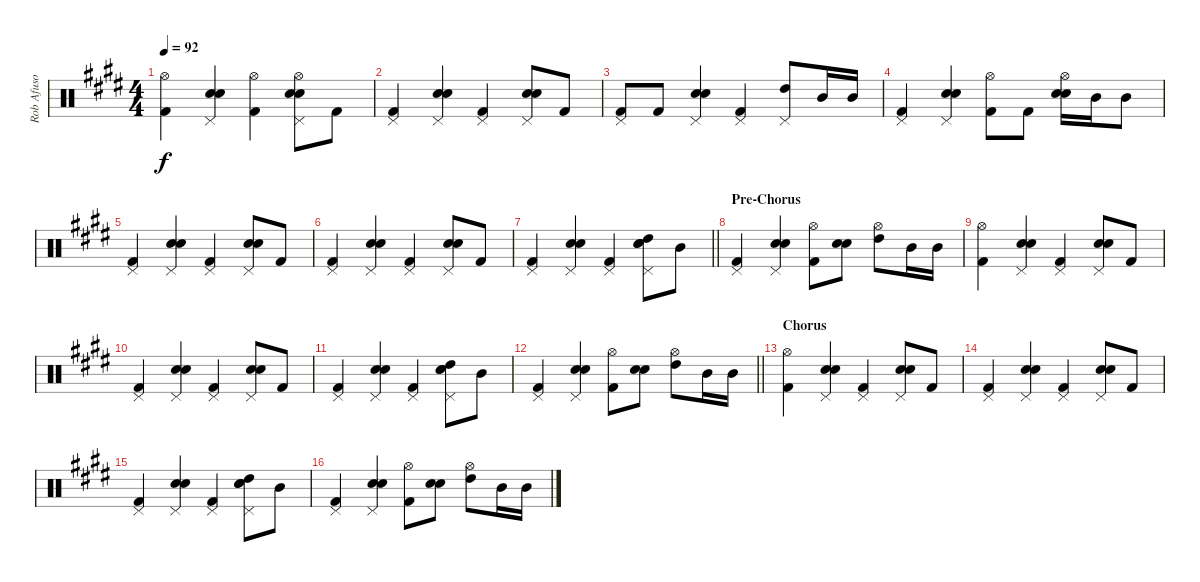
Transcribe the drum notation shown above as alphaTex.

\track ("Rob Afuso" "Rob Afuso") {instrument percussion}
\staff {score}
\articulation defaults
\ts (4 4)
\tempo 92
\clef neutral
\ks e
("Hi-Hat (open)" "Kick (hit) 2").4{dy f} ("Snare (hit) 2" "Electric Snare (hit)" "Pedal Hi-Hat (hit)").4 ("Hi-Hat (open)" "Kick (hit) 2").4 ("Hi-Hat (open)" "Snare (hit) 2" "Electric Snare (hit)" "Pedal Hi-Hat (hit)").8 "Kick (hit) 2".8 |
("Kick (hit) 2" "Pedal Hi-Hat (hit)").4 ("Snare (hit) 2" "Electric Snare (hit)" "Pedal Hi-Hat (hit)").4 ("Kick (hit) 2" "Pedal Hi-Hat (hit)").4 ("Snare (hit) 2" "Electric Snare (hit)" "Pedal Hi-Hat (hit)").8 "Kick (hit) 2".8 |
("Kick (hit) 2" "Pedal Hi-Hat (hit)").8 "Kick (hit) 2".8 ("Snare (hit) 2" "Electric Snare (hit)" "Pedal Hi-Hat (hit)").4 ("Kick (hit) 2" "Pedal Hi-Hat (hit)").4 ("High Tom (hit)" "Pedal Hi-Hat (hit)").8 "Mid Tom (hit)".16 "Mid Tom (hit)".16 |
("Kick (hit) 2" "Pedal Hi-Hat (hit)").4 ("Snare (hit) 2" "Electric Snare (hit)" "Pedal Hi-Hat (hit)").4 ("Hi-Hat (open)" "Kick (hit) 2").8 "Kick (hit) 2".8 ("Hi-Hat (open)" "Snare (hit) 2" "Electric Snare (hit)").16 "Mid Tom (hit)".16 "Mid Tom (hit)".8 |
("Kick (hit) 2" "Pedal Hi-Hat (hit)").4 ("Snare (hit) 2" "Electric Snare (hit)" "Pedal Hi-Hat (hit)").4 ("Kick (hit) 2" "Pedal Hi-Hat (hit)").4 ("Snare (hit) 2" "Electric Snare (hit)" "Pedal Hi-Hat (hit)").8 "Kick (hit) 2".8 |
("Kick (hit) 2" "Pedal Hi-Hat (hit)").4 ("Snare (hit) 2" "Electric Snare (hit)" "Pedal Hi-Hat (hit)").4 ("Kick (hit) 2" "Pedal Hi-Hat (hit)").4 ("Snare (hit) 2" "Electric Snare (hit)" "Pedal Hi-Hat (hit)").8 "Kick (hit) 2".8 |
\barLineRight lightlight
("Kick (hit) 2" "Pedal Hi-Hat (hit)").4 ("Snare (hit) 2" "Electric Snare (hit)" "Pedal Hi-Hat (hit)").4 ("Kick (hit) 2" "Pedal Hi-Hat (hit)").4 ("Snare (hit) 2" "Electric Snare (hit)" "High Tom (hit)" "Pedal Hi-Hat (hit)").8 "Mid Tom (hit)".8 |
\section ("" "Pre-Chorus")
("Kick (hit) 2" "Pedal Hi-Hat (hit)").4 ("Snare (hit) 2" "Electric Snare (hit)" "Pedal Hi-Hat (hit)").4 ("Hi-Hat (open)" "Kick (hit) 2").8 ("Snare (hit) 2" "Electric Snare (hit)").8 ("Hi-Hat (open)" "High Tom (hit)").8 "Mid Tom (hit)".16 "Mid Tom (hit)".16 |
("Hi-Hat (open)" "Kick (hit) 2").4 ("Snare (hit) 2" "Electric Snare (hit)" "Pedal Hi-Hat (hit)").4 ("Kick (hit) 2" "Pedal Hi-Hat (hit)").4 ("Snare (hit) 2" "Electric Snare (hit)" "Pedal Hi-Hat (hit)").8 "Kick (hit) 2".8 |
("Kick (hit) 2" "Pedal Hi-Hat (hit)").4 ("Snare (hit) 2" "Electric Snare (hit)" "Pedal Hi-Hat (hit)").4 ("Kick (hit) 2" "Pedal Hi-Hat (hit)").4 ("Snare (hit) 2" "Electric Snare (hit)" "Pedal Hi-Hat (hit)").8 "Kick (hit) 2".8 |
("Kick (hit) 2" "Pedal Hi-Hat (hit)").4 ("Snare (hit) 2" "Electric Snare (hit)" "Pedal Hi-Hat (hit)").4 ("Kick (hit) 2" "Pedal Hi-Hat (hit)").4 ("Snare (hit) 2" "Electric Snare (hit)" "High Tom (hit)" "Pedal Hi-Hat (hit)").8 "Mid Tom (hit)".8 |
\barLineRight lightlight
("Kick (hit) 2" "Pedal Hi-Hat (hit)").4 ("Snare (hit) 2" "Electric Snare (hit)" "Pedal Hi-Hat (hit)").4 ("Hi-Hat (open)" "Kick (hit) 2").8 ("Snare (hit) 2" "Electric Snare (hit)").8 ("Hi-Hat (open)" "High Tom (hit)").8 "Mid Tom (hit)".16 "Mid Tom (hit)".16 |
\section ("" "Chorus")
("Hi-Hat (open)" "Kick (hit) 2").4 ("Snare (hit) 2" "Electric Snare (hit)" "Pedal Hi-Hat (hit)").4 ("Kick (hit) 2" "Pedal Hi-Hat (hit)").4 ("Snare (hit) 2" "Electric Snare (hit)" "Pedal Hi-Hat (hit)").8 "Kick (hit) 2".8 |
("Kick (hit) 2" "Pedal Hi-Hat (hit)").4 ("Snare (hit) 2" "Electric Snare (hit)" "Pedal Hi-Hat (hit)").4 ("Kick (hit) 2" "Pedal Hi-Hat (hit)").4 ("Snare (hit) 2" "Electric Snare (hit)" "Pedal Hi-Hat (hit)").8 "Kick (hit) 2".8 |
("Kick (hit) 2" "Pedal Hi-Hat (hit)").4 ("Snare (hit) 2" "Electric Snare (hit)" "Pedal Hi-Hat (hit)").4 ("Kick (hit) 2" "Pedal Hi-Hat (hit)").4 ("Snare (hit) 2" "Electric Snare (hit)" "High Tom (hit)" "Pedal Hi-Hat (hit)").8 "Mid Tom (hit)".8 |
("Kick (hit) 2" "Pedal Hi-Hat (hit)").4 ("Snare (hit) 2" "Electric Snare (hit)" "Pedal Hi-Hat (hit)").4 ("Hi-Hat (open)" "Kick (hit) 2").8 ("Snare (hit) 2" "Electric Snare (hit)").8 ("Hi-Hat (open)" "High Tom (hit)").8 "Mid Tom (hit)".16 "Mid Tom (hit)".16
